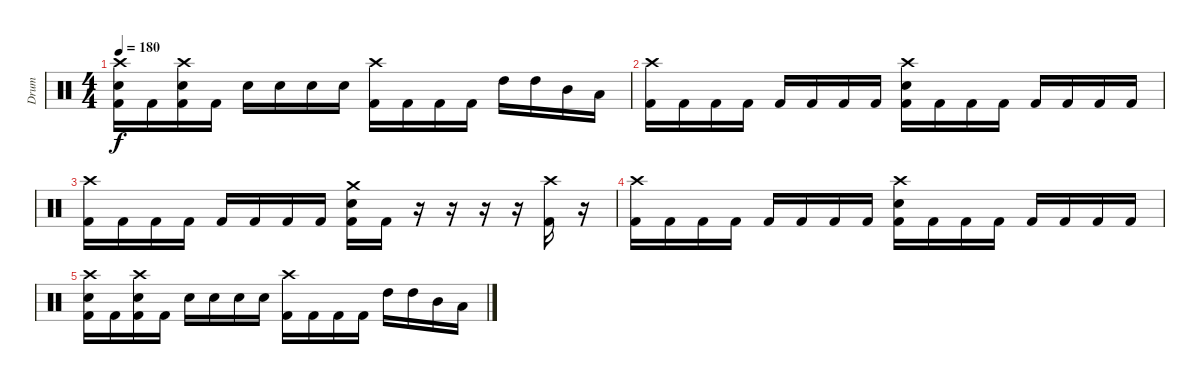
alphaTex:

\track ("Drum" "Drum") {instrument percussion}
\staff {score}
\articulation defaults
\ts (4 4)
\tempo 180
\clef neutral
\ks c
("Crash high (hit)" "Electric Snare (hit)" "Kick (hit) 2").16{dy f} "Kick (hit) 2".16 ("Crash high (hit)" "Electric Snare (hit)" "Kick (hit) 2").16 "Kick (hit) 2".16 "Electric Snare (hit)".16 "Electric Snare (hit)".16 "Electric Snare (hit)".16 "Electric Snare (hit)".16 ("Crash high (hit)" "Kick (hit) 2").16 "Kick (hit) 2".16 "Kick (hit) 2".16 "Kick (hit) 2".16 "High Tom (hit)".16 "High Tom (hit)".16 "Mid Tom (hit)".16 "Low Tom (hit)".16 |
("Crash high (hit)" "Kick (hit) 2").16 "Kick (hit) 2".16 "Kick (hit) 2".16 "Kick (hit) 2".16 "Kick (hit) 2".16 "Kick (hit) 2".16 "Kick (hit) 2".16 "Kick (hit) 2".16 ("Crash high (hit)" "Electric Snare (hit)" "Kick (hit) 2").16 "Kick (hit) 2".16 "Kick (hit) 2".16 "Kick (hit) 2".16 "Kick (hit) 2".16 "Kick (hit) 2".16 "Kick (hit) 2".16 "Kick (hit) 2".16 |
("Crash high (hit)" "Kick (hit) 2").16 "Kick (hit) 2".16 "Kick (hit) 2".16 "Kick (hit) 2".16 "Kick (hit) 2".16 "Kick (hit) 2".16 "Kick (hit) 2".16 "Kick (hit) 2".16 ("Crash medium (hit)" "Electric Snare (hit)" "Kick (hit) 2").16 "Kick (hit) 2".16 r.16 r.16 r.16 r.16 ("Crash high (hit)" "Kick (hit) 2").16 r.16 |
("Crash high (hit)" "Kick (hit) 2").16 "Kick (hit) 2".16 "Kick (hit) 2".16 "Kick (hit) 2".16 "Kick (hit) 2".16 "Kick (hit) 2".16 "Kick (hit) 2".16 "Kick (hit) 2".16 ("Crash high (hit)" "Electric Snare (hit)" "Kick (hit) 2").16 "Kick (hit) 2".16 "Kick (hit) 2".16 "Kick (hit) 2".16 "Kick (hit) 2".16 "Kick (hit) 2".16 "Kick (hit) 2".16 "Kick (hit) 2".16 |
("Crash high (hit)" "Electric Snare (hit)" "Kick (hit) 2").16 "Kick (hit) 2".16 ("Crash high (hit)" "Electric Snare (hit)" "Kick (hit) 2").16 "Kick (hit) 2".16 "Electric Snare (hit)".16 "Electric Snare (hit)".16 "Electric Snare (hit)".16 "Electric Snare (hit)".16 ("Crash high (hit)" "Kick (hit) 2").16 "Kick (hit) 2".16 "Kick (hit) 2".16 "Kick (hit) 2".16 "High Tom (hit)".16 "High Tom (hit)".16 "Mid Tom (hit)".16 "Low Tom (hit)".16
